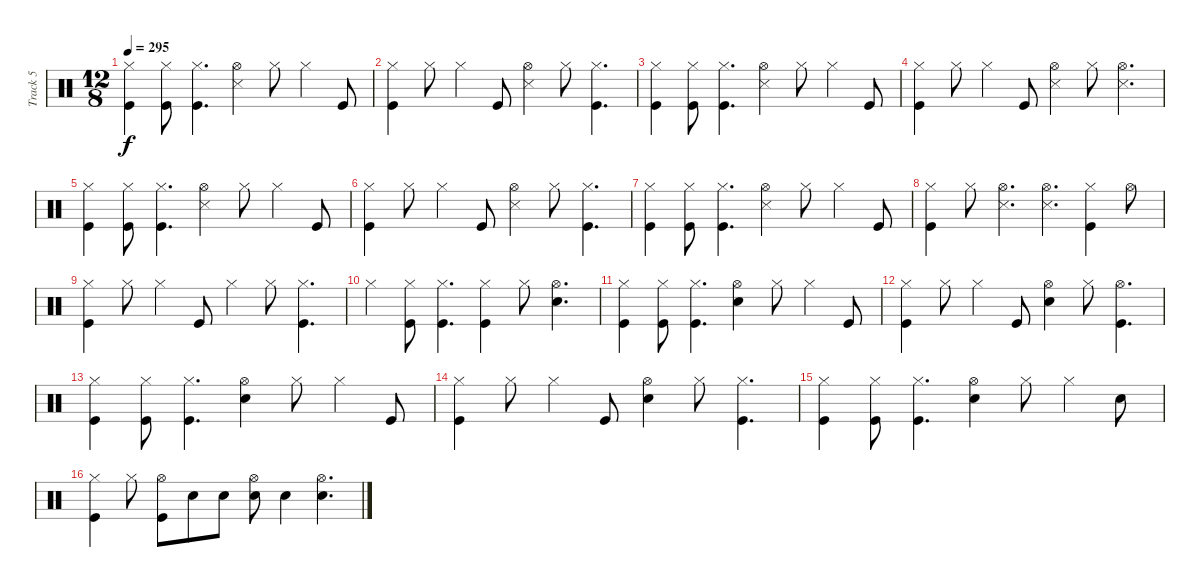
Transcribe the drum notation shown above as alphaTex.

\track ("Track 5" "Track 5") {instrument percussion}
\staff {score}
\articulation defaults
\ts (12 8)
\tempo 295
\clef neutral
\ks c
("Hi-Hat (closed)" "Kick (hit)").4{dy f} ("Hi-Hat (closed)" "Kick (hit)").8 ("Hi-Hat (closed)" "Kick (hit)").4{d} ("Hi-Hat (open)" "Snare (side stick) 3").4 "Hi-Hat (closed)".8 "Hi-Hat (closed)".4 "Kick (hit)".8 |
("Hi-Hat (closed)" "Kick (hit)").4 "Hi-Hat (closed)".8 "Hi-Hat (closed)".4 "Kick (hit)".8 ("Hi-Hat (open)" "Snare (side stick) 3").4 "Hi-Hat (closed)".8 ("Hi-Hat (closed)" "Kick (hit)").4{d} |
("Hi-Hat (closed)" "Kick (hit)").4 ("Hi-Hat (closed)" "Kick (hit)").8 ("Hi-Hat (closed)" "Kick (hit)").4{d} ("Hi-Hat (open)" "Snare (side stick) 3").4 "Hi-Hat (closed)".8 "Hi-Hat (closed)".4 "Kick (hit)".8 |
("Hi-Hat (closed)" "Kick (hit)").4 "Hi-Hat (closed)".8 "Hi-Hat (closed)".4 "Kick (hit)".8 ("Hi-Hat (open)" "Snare (side stick) 3").4 "Hi-Hat (closed)".8 ("Hi-Hat (open)" "Snare (side stick) 3").4{d} |
("Hi-Hat (closed)" "Kick (hit)").4 ("Hi-Hat (closed)" "Kick (hit)").8 ("Hi-Hat (closed)" "Kick (hit)").4{d} ("Hi-Hat (open)" "Snare (side stick) 3").4 "Hi-Hat (closed)".8 "Hi-Hat (closed)".4 "Kick (hit)".8 |
("Hi-Hat (closed)" "Kick (hit)").4 "Hi-Hat (closed)".8 "Hi-Hat (closed)".4 "Kick (hit)".8 ("Hi-Hat (open)" "Snare (side stick) 3").4 "Hi-Hat (closed)".8 ("Hi-Hat (closed)" "Kick (hit)").4{d} |
("Hi-Hat (closed)" "Kick (hit)").4 ("Hi-Hat (closed)" "Kick (hit)").8 ("Hi-Hat (closed)" "Kick (hit)").4{d} ("Hi-Hat (open)" "Snare (side stick) 3").4 "Hi-Hat (closed)".8 "Hi-Hat (closed)".4 "Kick (hit)".8 |
("Hi-Hat (closed)" "Kick (hit)").4 "Hi-Hat (closed)".8 ("Hi-Hat (open)" "Snare (side stick) 3").4{d} ("Hi-Hat (open)" "Snare (side stick) 3").4{d} ("Hi-Hat (closed)" "Kick (hit)").4 "Hi-Hat (open)".8 |
("Hi-Hat (closed)" "Kick (hit)").4 "Hi-Hat (closed)".8 "Hi-Hat (closed)".4 "Kick (hit)".8 "Hi-Hat (closed)".4 "Hi-Hat (closed)".8 ("Hi-Hat (closed)" "Kick (hit)").4{d} |
"Hi-Hat (closed)".4 ("Hi-Hat (closed)" "Kick (hit)").8 ("Hi-Hat (closed)" "Kick (hit)").4{d} ("Hi-Hat (closed)" "Kick (hit)").4 "Hi-Hat (closed)".8 ("Hi-Hat (open)" "Electric Snare (hit)").4{d} |
("Hi-Hat (closed)" "Kick (hit)").4 ("Hi-Hat (closed)" "Kick (hit)").8 ("Hi-Hat (closed)" "Kick (hit)").4{d} ("Hi-Hat (open)" "Electric Snare (hit)").4 "Hi-Hat (closed)".8 "Hi-Hat (closed)".4 "Kick (hit)".8 |
("Hi-Hat (closed)" "Kick (hit)").4 "Hi-Hat (closed)".8 "Hi-Hat (closed)".4 "Kick (hit)".8 ("Hi-Hat (open)" "Electric Snare (hit)").4 "Hi-Hat (closed)".8 ("Hi-Hat (open)" "Kick (hit)").4{d} |
("Hi-Hat (closed)" "Kick (hit)").4 ("Hi-Hat (closed)" "Kick (hit)").8 ("Hi-Hat (closed)" "Kick (hit)").4{d} ("Hi-Hat (open)" "Electric Snare (hit)").4 "Hi-Hat (closed)".8 "Hi-Hat (closed)".4 "Kick (hit)".8 |
("Hi-Hat (closed)" "Kick (hit)").4 "Hi-Hat (closed)".8 "Hi-Hat (closed)".4 "Kick (hit)".8 ("Hi-Hat (open)" "Electric Snare (hit)").4 "Hi-Hat (closed)".8 ("Hi-Hat (closed)" "Kick (hit)").4{d} |
("Hi-Hat (closed)" "Kick (hit)").4 ("Hi-Hat (closed)" "Kick (hit)").8 ("Hi-Hat (closed)" "Kick (hit)").4{d} ("Hi-Hat (open)" "Electric Snare (hit)").4 "Hi-Hat (closed)".8 "Hi-Hat (closed)".4 "Electric Snare (hit)".8 |
("Hi-Hat (closed)" "Kick (hit)").4 "Hi-Hat (closed)".8 ("Hi-Hat (open)" "Kick (hit)").8 "Electric Snare (hit)".8 "Electric Snare (hit)".8 ("Hi-Hat (open)" "Electric Snare (hit)").8 "Electric Snare (hit)".4 ("Hi-Hat (open)" "Electric Snare (hit)").4{d}
